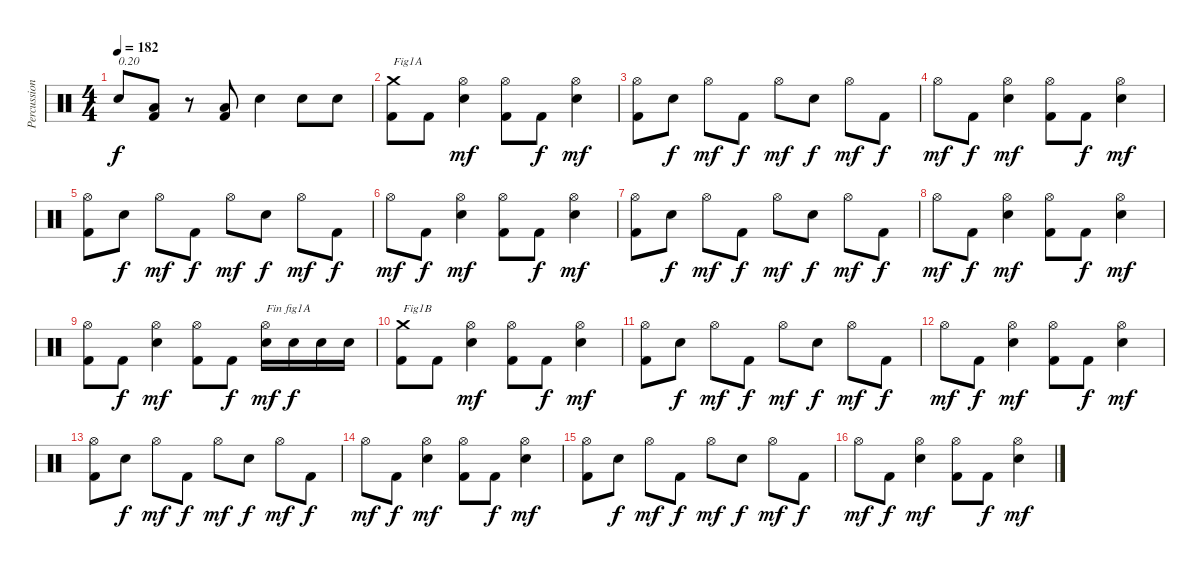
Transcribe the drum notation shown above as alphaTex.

\track ("Percussions" "Percussion") {instrument percussion}
\staff {score}
\articulation defaults
\ts (4 4)
\tempo 182
\clef neutral
\ks c "Electric Snare (hit)".8{txt "0.20" dy f}
("Kick (hit) 2" "Low Floor Tom (hit)").8 r.8 ("Kick (hit) 2" "Low Floor Tom (hit)").8 "Electric Snare (hit)".4 "Electric Snare (hit)".8 "Electric Snare (hit)".8 |
("Kick (hit) 2" "Crash medium (hit)").8{txt "Fig1A"} "Kick (hit) 2".8 ("Electric Snare (hit)" "Hi-Hat (open)").4{dy mf} ("Kick (hit) 2" "Hi-Hat (open)").8 "Kick (hit) 2".8{dy f} ("Electric Snare (hit)" "Hi-Hat (open)").4{dy mf} |
("Kick (hit) 2" "Hi-Hat (open)").8 "Electric Snare (hit)".8{dy f} "Hi-Hat (open)".8{dy mf} "Kick (hit) 2".8{dy f} "Hi-Hat (open)".8{dy mf} "Electric Snare (hit)".8{dy f} "Hi-Hat (open)".8{dy mf} "Kick (hit) 2".8{dy f} |
"Hi-Hat (open)".8{dy mf} "Kick (hit) 2".8{dy f} ("Electric Snare (hit)" "Hi-Hat (open)").4{dy mf} ("Kick (hit) 2" "Hi-Hat (open)").8 "Kick (hit) 2".8{dy f} ("Electric Snare (hit)" "Hi-Hat (open)").4{dy mf} |
("Kick (hit) 2" "Hi-Hat (open)").8 "Electric Snare (hit)".8{dy f} "Hi-Hat (open)".8{dy mf} "Kick (hit) 2".8{dy f} "Hi-Hat (open)".8{dy mf} "Electric Snare (hit)".8{dy f} "Hi-Hat (open)".8{dy mf} "Kick (hit) 2".8{dy f} |
"Hi-Hat (open)".8{dy mf} "Kick (hit) 2".8{dy f} ("Electric Snare (hit)" "Hi-Hat (open)").4{dy mf} ("Kick (hit) 2" "Hi-Hat (open)").8 "Kick (hit) 2".8{dy f} ("Electric Snare (hit)" "Hi-Hat (open)").4{dy mf} |
("Kick (hit) 2" "Hi-Hat (open)").8 "Electric Snare (hit)".8{dy f} "Hi-Hat (open)".8{dy mf} "Kick (hit) 2".8{dy f} "Hi-Hat (open)".8{dy mf} "Electric Snare (hit)".8{dy f} "Hi-Hat (open)".8{dy mf} "Kick (hit) 2".8{dy f} |
"Hi-Hat (open)".8{dy mf} "Kick (hit) 2".8{dy f} ("Electric Snare (hit)" "Hi-Hat (open)").4{dy mf} ("Kick (hit) 2" "Hi-Hat (open)").8 "Kick (hit) 2".8{dy f} ("Electric Snare (hit)" "Hi-Hat (open)").4{dy mf} |
("Kick (hit) 2" "Hi-Hat (open)").8 "Kick (hit) 2".8{dy f} ("Electric Snare (hit)" "Hi-Hat (open)").4{dy mf} ("Kick (hit) 2" "Hi-Hat (open)").8 "Kick (hit) 2".8{dy f} ("Electric Snare (hit)" "Hi-Hat (open)").16{txt "Fin fig1A" dy mf} "Electric Snare (hit)".16{dy f} "Electric Snare (hit)".16 "Electric Snare (hit)".16 |
("Kick (hit) 2" "Crash medium (hit)").8{txt "Fig1B"} "Kick (hit) 2".8 ("Electric Snare (hit)" "Hi-Hat (open)").4{dy mf} ("Kick (hit) 2" "Hi-Hat (open)").8 "Kick (hit) 2".8{dy f} ("Electric Snare (hit)" "Hi-Hat (open)").4{dy mf} |
("Kick (hit) 2" "Hi-Hat (open)").8 "Electric Snare (hit)".8{dy f} "Hi-Hat (open)".8{dy mf} "Kick (hit) 2".8{dy f} "Hi-Hat (open)".8{dy mf} "Electric Snare (hit)".8{dy f} "Hi-Hat (open)".8{dy mf} "Kick (hit) 2".8{dy f} |
"Hi-Hat (open)".8{dy mf} "Kick (hit) 2".8{dy f} ("Electric Snare (hit)" "Hi-Hat (open)").4{dy mf} ("Kick (hit) 2" "Hi-Hat (open)").8 "Kick (hit) 2".8{dy f} ("Electric Snare (hit)" "Hi-Hat (open)").4{dy mf} |
("Kick (hit) 2" "Hi-Hat (open)").8 "Electric Snare (hit)".8{dy f} "Hi-Hat (open)".8{dy mf} "Kick (hit) 2".8{dy f} "Hi-Hat (open)".8{dy mf} "Electric Snare (hit)".8{dy f} "Hi-Hat (open)".8{dy mf} "Kick (hit) 2".8{dy f} |
"Hi-Hat (open)".8{dy mf} "Kick (hit) 2".8{dy f} ("Electric Snare (hit)" "Hi-Hat (open)").4{dy mf} ("Kick (hit) 2" "Hi-Hat (open)").8 "Kick (hit) 2".8{dy f} ("Electric Snare (hit)" "Hi-Hat (open)").4{dy mf} |
("Kick (hit) 2" "Hi-Hat (open)").8 "Electric Snare (hit)".8{dy f} "Hi-Hat (open)".8{dy mf} "Kick (hit) 2".8{dy f} "Hi-Hat (open)".8{dy mf} "Electric Snare (hit)".8{dy f} "Hi-Hat (open)".8{dy mf} "Kick (hit) 2".8{dy f} |
"Hi-Hat (open)".8{dy mf} "Kick (hit) 2".8{dy f} ("Electric Snare (hit)" "Hi-Hat (open)").4{dy mf} ("Kick (hit) 2" "Hi-Hat (open)").8 "Kick (hit) 2".8{dy f} ("Electric Snare (hit)" "Hi-Hat (open)").4{dy mf}
